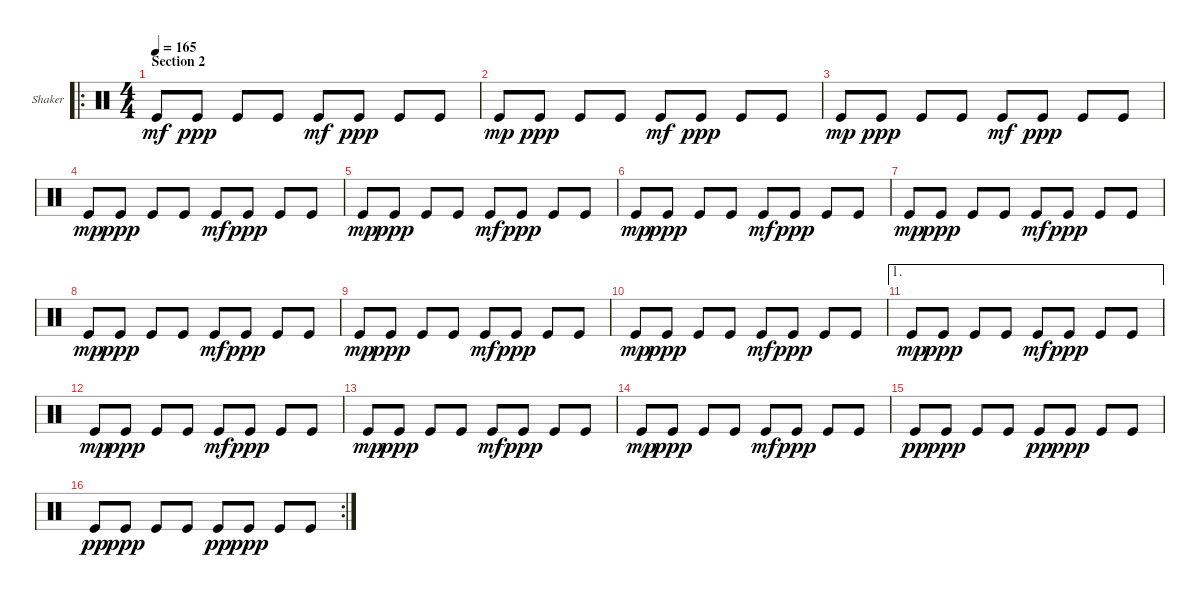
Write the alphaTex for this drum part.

\bracketExtendMode groupsimilarinstruments
\firstSystemTrackNameOrientation horizontal
\otherSystemsTrackNameOrientation horizontal
\track ("Shaker" "Shaker") {instrument percussion}
\staff {score}
\articulation defaults
\ro
\ts (4 4)
\section ("" "Section 2")
\tempo 165
\clef neutral
\ks c "Kick (hit)".8{dy mf} "Kick (hit)".8{dy ppp} "Kick (hit)".8 "Kick (hit)".8 "Kick (hit)".8{dy mf} "Kick (hit)".8{dy ppp} "Kick (hit)".8 "Kick (hit)".8
|
"Kick (hit)".8{dy mp} "Kick (hit)".8{dy ppp} "Kick (hit)".8 "Kick (hit)".8 "Kick (hit)".8{dy mf} "Kick (hit)".8{dy ppp} "Kick (hit)".8 "Kick (hit)".8 |
"Kick (hit)".8{dy mp} "Kick (hit)".8{dy ppp} "Kick (hit)".8 "Kick (hit)".8 "Kick (hit)".8{dy mf} "Kick (hit)".8{dy ppp} "Kick (hit)".8 "Kick (hit)".8 |
"Kick (hit)".8{dy mp} "Kick (hit)".8{dy ppp} "Kick (hit)".8 "Kick (hit)".8 "Kick (hit)".8{dy mf} "Kick (hit)".8{dy ppp} "Kick (hit)".8 "Kick (hit)".8 |
"Kick (hit)".8{dy mp} "Kick (hit)".8{dy ppp} "Kick (hit)".8 "Kick (hit)".8 "Kick (hit)".8{dy mf} "Kick (hit)".8{dy ppp} "Kick (hit)".8 "Kick (hit)".8 |
"Kick (hit)".8{dy mp} "Kick (hit)".8{dy ppp} "Kick (hit)".8 "Kick (hit)".8 "Kick (hit)".8{dy mf} "Kick (hit)".8{dy ppp} "Kick (hit)".8 "Kick (hit)".8 |
"Kick (hit)".8{dy mp} "Kick (hit)".8{dy ppp} "Kick (hit)".8 "Kick (hit)".8 "Kick (hit)".8{dy mf} "Kick (hit)".8{dy ppp} "Kick (hit)".8 "Kick (hit)".8 |
"Kick (hit)".8{dy mp} "Kick (hit)".8{dy ppp} "Kick (hit)".8 "Kick (hit)".8 "Kick (hit)".8{dy mf} "Kick (hit)".8{dy ppp} "Kick (hit)".8 "Kick (hit)".8 |
"Kick (hit)".8{dy mp} "Kick (hit)".8{dy ppp} "Kick (hit)".8 "Kick (hit)".8 "Kick (hit)".8{dy mf} "Kick (hit)".8{dy ppp} "Kick (hit)".8 "Kick (hit)".8 |
"Kick (hit)".8{dy mp} "Kick (hit)".8{dy ppp} "Kick (hit)".8 "Kick (hit)".8 "Kick (hit)".8{dy mf} "Kick (hit)".8{dy ppp} "Kick (hit)".8 "Kick (hit)".8 |
\ae 1 "Kick (hit)".8{dy mp} "Kick (hit)".8{dy ppp} "Kick (hit)".8 "Kick (hit)".8 "Kick (hit)".8{dy mf} "Kick (hit)".8{dy ppp} "Kick (hit)".8 "Kick (hit)".8
|
"Kick (hit)".8{dy mp} "Kick (hit)".8{dy ppp} "Kick (hit)".8 "Kick (hit)".8 "Kick (hit)".8{dy mf} "Kick (hit)".8{dy ppp} "Kick (hit)".8 "Kick (hit)".8 |
"Kick (hit)".8{dy mp} "Kick (hit)".8{dy ppp} "Kick (hit)".8 "Kick (hit)".8 "Kick (hit)".8{dy mf} "Kick (hit)".8{dy ppp} "Kick (hit)".8 "Kick (hit)".8 |
"Kick (hit)".8{dy mp} "Kick (hit)".8{dy ppp} "Kick (hit)".8 "Kick (hit)".8 "Kick (hit)".8{dy mf} "Kick (hit)".8{dy ppp} "Kick (hit)".8 "Kick (hit)".8 |
"Kick (hit)".8{dy pp} "Kick (hit)".8{dy ppp} "Kick (hit)".8 "Kick (hit)".8 "Kick (hit)".8{dy pp} "Kick (hit)".8{dy ppp} "Kick (hit)".8 "Kick (hit)".8 |
\rc 2 "Kick (hit)".8{dy pp} "Kick (hit)".8{dy ppp} "Kick (hit)".8 "Kick (hit)".8 "Kick (hit)".8{dy pp} "Kick (hit)".8{dy ppp} "Kick (hit)".8 "Kick (hit)".8
